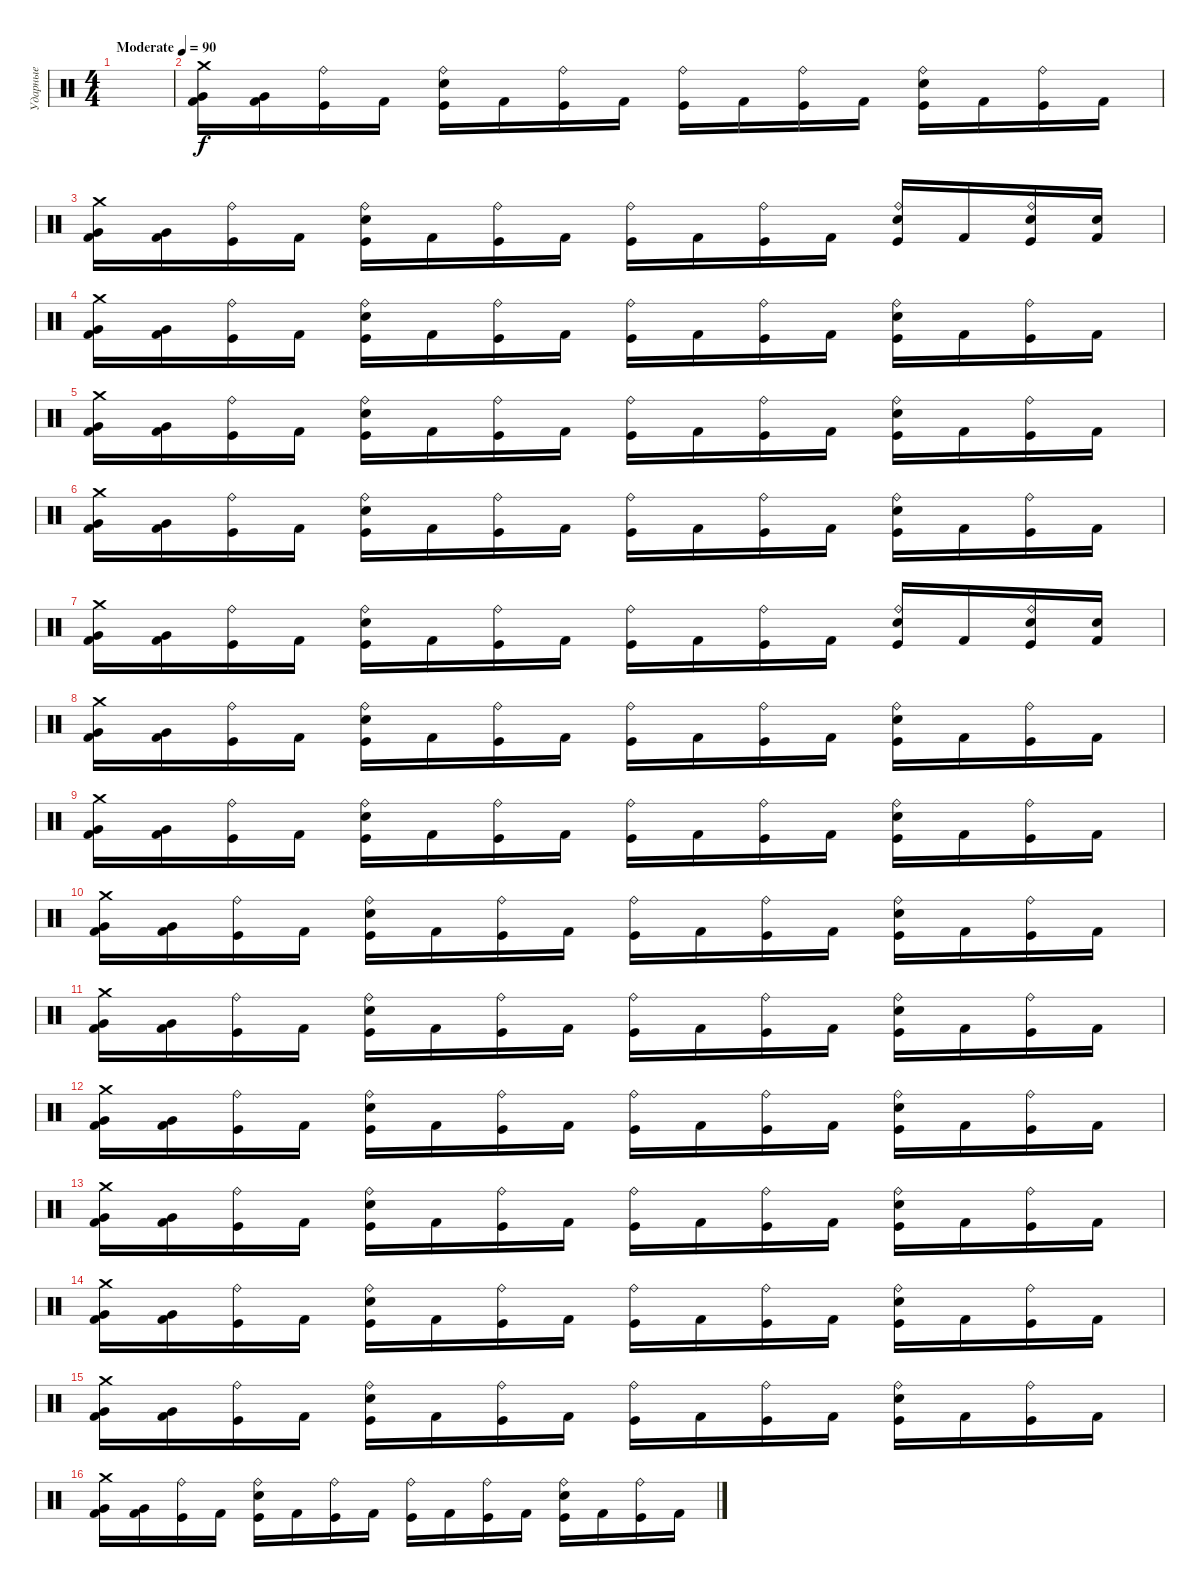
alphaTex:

\track ("Ударные" "Ударные") {instrument percussion}
\staff {score}
\articulation defaults
\ts (4 4)
\tempo (90 "Moderate")
\clef neutral
\ks c
|
("Very Low Tom (hit)" "Kick (hit) 2" "Crash medium (hit)").16 ("Very Low Tom (hit)" "Kick (hit) 2").16 ("Kick (hit)" "Ride (bell)").16 "Kick (hit) 2".16 ("Kick (hit)" "Electric Snare (hit)" "Ride (bell)").16 "Kick (hit) 2".16 ("Kick (hit)" "Ride (bell)").16 "Kick (hit) 2".16 ("Kick (hit)" "Ride (bell)").16 "Kick (hit) 2".16 ("Kick (hit)" "Ride (bell)").16 "Kick (hit) 2".16 ("Kick (hit)" "Electric Snare (hit)" "Ride (bell)").16 "Kick (hit) 2".16 ("Kick (hit)" "Ride (bell)").16 "Kick (hit) 2".16 |
("Very Low Tom (hit)" "Kick (hit) 2" "Crash medium (hit)").16 ("Very Low Tom (hit)" "Kick (hit) 2").16 ("Kick (hit)" "Ride (bell)").16 "Kick (hit) 2".16 ("Kick (hit)" "Electric Snare (hit)" "Ride (bell)").16 "Kick (hit) 2".16 ("Kick (hit)" "Ride (bell)").16 "Kick (hit) 2".16 ("Kick (hit)" "Ride (bell)").16 "Kick (hit) 2".16 ("Kick (hit)" "Ride (bell)").16 "Kick (hit) 2".16 ("Kick (hit)" "Electric Snare (hit)" "Ride (bell)").16 "Kick (hit) 2".16 ("Kick (hit)" "Electric Snare (hit)" "Ride (bell)").16 ("Kick (hit) 2" "Electric Snare (hit)").16 |
("Very Low Tom (hit)" "Kick (hit) 2" "Crash medium (hit)").16 ("Very Low Tom (hit)" "Kick (hit) 2").16 ("Kick (hit)" "Ride (bell)").16 "Kick (hit) 2".16 ("Kick (hit)" "Electric Snare (hit)" "Ride (bell)").16 "Kick (hit) 2".16 ("Kick (hit)" "Ride (bell)").16 "Kick (hit) 2".16 ("Kick (hit)" "Ride (bell)").16 "Kick (hit) 2".16 ("Kick (hit)" "Ride (bell)").16 "Kick (hit) 2".16 ("Kick (hit)" "Electric Snare (hit)" "Ride (bell)").16 "Kick (hit) 2".16 ("Kick (hit)" "Ride (bell)").16 "Kick (hit) 2".16 |
("Very Low Tom (hit)" "Kick (hit) 2" "Crash medium (hit)").16 ("Very Low Tom (hit)" "Kick (hit) 2").16 ("Kick (hit)" "Ride (bell)").16 "Kick (hit) 2".16 ("Kick (hit)" "Electric Snare (hit)" "Ride (bell)").16 "Kick (hit) 2".16 ("Kick (hit)" "Ride (bell)").16 "Kick (hit) 2".16 ("Kick (hit)" "Ride (bell)").16 "Kick (hit) 2".16 ("Kick (hit)" "Ride (bell)").16 "Kick (hit) 2".16 ("Kick (hit)" "Electric Snare (hit)" "Ride (bell)").16 "Kick (hit) 2".16 ("Kick (hit)" "Ride (bell)").16 "Kick (hit) 2".16 |
("Very Low Tom (hit)" "Kick (hit) 2" "Crash medium (hit)").16 ("Very Low Tom (hit)" "Kick (hit) 2").16 ("Kick (hit)" "Ride (bell)").16 "Kick (hit) 2".16 ("Kick (hit)" "Electric Snare (hit)" "Ride (bell)").16 "Kick (hit) 2".16 ("Kick (hit)" "Ride (bell)").16 "Kick (hit) 2".16 ("Kick (hit)" "Ride (bell)").16 "Kick (hit) 2".16 ("Kick (hit)" "Ride (bell)").16 "Kick (hit) 2".16 ("Kick (hit)" "Electric Snare (hit)" "Ride (bell)").16 "Kick (hit) 2".16 ("Kick (hit)" "Ride (bell)").16 "Kick (hit) 2".16 |
("Very Low Tom (hit)" "Kick (hit) 2" "Crash medium (hit)").16 ("Very Low Tom (hit)" "Kick (hit) 2").16 ("Kick (hit)" "Ride (bell)").16 "Kick (hit) 2".16 ("Kick (hit)" "Electric Snare (hit)" "Ride (bell)").16 "Kick (hit) 2".16 ("Kick (hit)" "Ride (bell)").16 "Kick (hit) 2".16 ("Kick (hit)" "Ride (bell)").16 "Kick (hit) 2".16 ("Kick (hit)" "Ride (bell)").16 "Kick (hit) 2".16 ("Kick (hit)" "Electric Snare (hit)" "Ride (bell)").16 "Kick (hit) 2".16 ("Kick (hit)" "Electric Snare (hit)" "Ride (bell)").16 ("Kick (hit) 2" "Electric Snare (hit)").16 |
("Very Low Tom (hit)" "Kick (hit) 2" "Crash medium (hit)").16 ("Very Low Tom (hit)" "Kick (hit) 2").16 ("Kick (hit)" "Ride (bell)").16 "Kick (hit) 2".16 ("Kick (hit)" "Electric Snare (hit)" "Ride (bell)").16 "Kick (hit) 2".16 ("Kick (hit)" "Ride (bell)").16 "Kick (hit) 2".16 ("Kick (hit)" "Ride (bell)").16 "Kick (hit) 2".16 ("Kick (hit)" "Ride (bell)").16 "Kick (hit) 2".16 ("Kick (hit)" "Electric Snare (hit)" "Ride (bell)").16 "Kick (hit) 2".16 ("Kick (hit)" "Ride (bell)").16 "Kick (hit) 2".16 |
("Very Low Tom (hit)" "Kick (hit) 2" "Crash medium (hit)").16 ("Very Low Tom (hit)" "Kick (hit) 2").16 ("Kick (hit)" "Ride (bell)").16 "Kick (hit) 2".16 ("Kick (hit)" "Electric Snare (hit)" "Ride (bell)").16 "Kick (hit) 2".16 ("Kick (hit)" "Ride (bell)").16 "Kick (hit) 2".16 ("Kick (hit)" "Ride (bell)").16 "Kick (hit) 2".16 ("Kick (hit)" "Ride (bell)").16 "Kick (hit) 2".16 ("Kick (hit)" "Electric Snare (hit)" "Ride (bell)").16 "Kick (hit) 2".16 ("Kick (hit)" "Ride (bell)").16 "Kick (hit) 2".16 |
("Very Low Tom (hit)" "Kick (hit) 2" "Crash medium (hit)").16 ("Very Low Tom (hit)" "Kick (hit) 2").16 ("Kick (hit)" "Ride (bell)").16 "Kick (hit) 2".16 ("Kick (hit)" "Electric Snare (hit)" "Ride (bell)").16 "Kick (hit) 2".16 ("Kick (hit)" "Ride (bell)").16 "Kick (hit) 2".16 ("Kick (hit)" "Ride (bell)").16 "Kick (hit) 2".16 ("Kick (hit)" "Ride (bell)").16 "Kick (hit) 2".16 ("Kick (hit)" "Electric Snare (hit)" "Ride (bell)").16 "Kick (hit) 2".16 ("Kick (hit)" "Ride (bell)").16 "Kick (hit) 2".16 |
("Very Low Tom (hit)" "Kick (hit) 2" "Crash medium (hit)").16 ("Very Low Tom (hit)" "Kick (hit) 2").16 ("Kick (hit)" "Ride (bell)").16 "Kick (hit) 2".16 ("Kick (hit)" "Electric Snare (hit)" "Ride (bell)").16 "Kick (hit) 2".16 ("Kick (hit)" "Ride (bell)").16 "Kick (hit) 2".16 ("Kick (hit)" "Ride (bell)").16 "Kick (hit) 2".16 ("Kick (hit)" "Ride (bell)").16 "Kick (hit) 2".16 ("Kick (hit)" "Electric Snare (hit)" "Ride (bell)").16 "Kick (hit) 2".16 ("Kick (hit)" "Ride (bell)").16 "Kick (hit) 2".16 |
("Very Low Tom (hit)" "Kick (hit) 2" "Crash medium (hit)").16 ("Very Low Tom (hit)" "Kick (hit) 2").16 ("Kick (hit)" "Ride (bell)").16 "Kick (hit) 2".16 ("Kick (hit)" "Electric Snare (hit)" "Ride (bell)").16 "Kick (hit) 2".16 ("Kick (hit)" "Ride (bell)").16 "Kick (hit) 2".16 ("Kick (hit)" "Ride (bell)").16 "Kick (hit) 2".16 ("Kick (hit)" "Ride (bell)").16 "Kick (hit) 2".16 ("Kick (hit)" "Electric Snare (hit)" "Ride (bell)").16 "Kick (hit) 2".16 ("Kick (hit)" "Ride (bell)").16 "Kick (hit) 2".16 |
("Very Low Tom (hit)" "Kick (hit) 2" "Crash medium (hit)").16 ("Very Low Tom (hit)" "Kick (hit) 2").16 ("Kick (hit)" "Ride (bell)").16 "Kick (hit) 2".16 ("Kick (hit)" "Electric Snare (hit)" "Ride (bell)").16 "Kick (hit) 2".16 ("Kick (hit)" "Ride (bell)").16 "Kick (hit) 2".16 ("Kick (hit)" "Ride (bell)").16 "Kick (hit) 2".16 ("Kick (hit)" "Ride (bell)").16 "Kick (hit) 2".16 ("Kick (hit)" "Electric Snare (hit)" "Ride (bell)").16 "Kick (hit) 2".16 ("Kick (hit)" "Ride (bell)").16 "Kick (hit) 2".16 |
("Very Low Tom (hit)" "Kick (hit) 2" "Crash medium (hit)").16 ("Very Low Tom (hit)" "Kick (hit) 2").16 ("Kick (hit)" "Ride (bell)").16 "Kick (hit) 2".16 ("Kick (hit)" "Electric Snare (hit)" "Ride (bell)").16 "Kick (hit) 2".16 ("Kick (hit)" "Ride (bell)").16 "Kick (hit) 2".16 ("Kick (hit)" "Ride (bell)").16 "Kick (hit) 2".16 ("Kick (hit)" "Ride (bell)").16 "Kick (hit) 2".16 ("Kick (hit)" "Electric Snare (hit)" "Ride (bell)").16 "Kick (hit) 2".16 ("Kick (hit)" "Ride (bell)").16 "Kick (hit) 2".16 |
("Very Low Tom (hit)" "Kick (hit) 2" "Crash medium (hit)").16 ("Very Low Tom (hit)" "Kick (hit) 2").16 ("Kick (hit)" "Ride (bell)").16 "Kick (hit) 2".16 ("Kick (hit)" "Electric Snare (hit)" "Ride (bell)").16 "Kick (hit) 2".16 ("Kick (hit)" "Ride (bell)").16 "Kick (hit) 2".16 ("Kick (hit)" "Ride (bell)").16 "Kick (hit) 2".16 ("Kick (hit)" "Ride (bell)").16 "Kick (hit) 2".16 ("Kick (hit)" "Electric Snare (hit)" "Ride (bell)").16 "Kick (hit) 2".16 ("Kick (hit)" "Ride (bell)").16 "Kick (hit) 2".16 |
("Very Low Tom (hit)" "Kick (hit) 2" "Crash medium (hit)").16 ("Very Low Tom (hit)" "Kick (hit) 2").16 ("Kick (hit)" "Ride (bell)").16 "Kick (hit) 2".16 ("Kick (hit)" "Electric Snare (hit)" "Ride (bell)").16 "Kick (hit) 2".16 ("Kick (hit)" "Ride (bell)").16 "Kick (hit) 2".16 ("Kick (hit)" "Ride (bell)").16 "Kick (hit) 2".16 ("Kick (hit)" "Ride (bell)").16 "Kick (hit) 2".16 ("Kick (hit)" "Electric Snare (hit)" "Ride (bell)").16 "Kick (hit) 2".16 ("Kick (hit)" "Ride (bell)").16 "Kick (hit) 2".16
